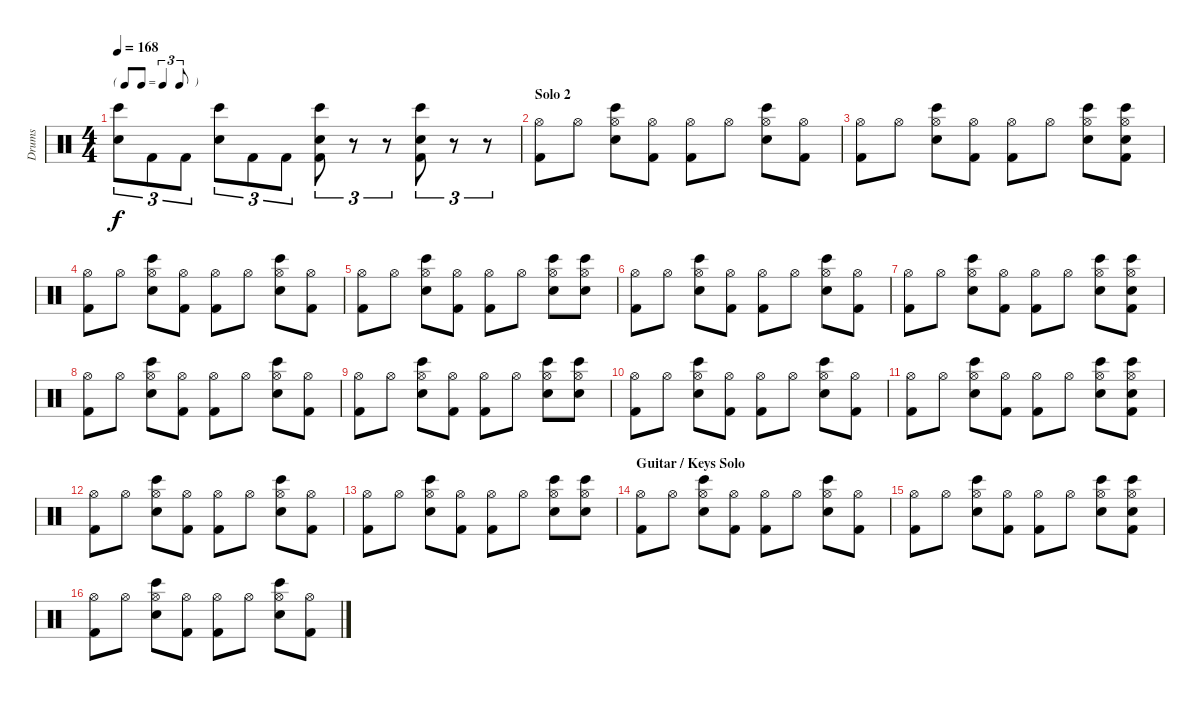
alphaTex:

\track ("Drums" "Drums") {instrument percussion}
\staff {score}
\articulation defaults
\ts (4 4)
\tf triplet8th
\tempo 168
\clef neutral
\ks c
("Bongo High (hit)" "Snare (hit) 2").8{tu (3 2) dy f} "Kick (hit) 2".8{tu (3 2)} "Kick (hit) 2".8{tu (3 2)} ("Bongo High (hit)" "Snare (hit) 2").8{tu (3 2)} "Kick (hit) 2".8{tu (3 2)} "Kick (hit) 2".8{tu (3 2)} ("Bongo High (hit)" "Snare (hit) 2" "Kick (hit) 2").8{tu (3 2)} r.8{tu (3 2)} r.8{tu (3 2)} ("Bongo High (hit)" "Snare (hit) 2" "Kick (hit) 2").8{tu (3 2)} r.8{tu (3 2)} r.8{tu (3 2)} |
\section ("" "Solo 2")
("Hi-Hat (open)" "Kick (hit) 2").8 "Hi-Hat (open)".8 ("Hi-Hat (open)" "Bongo High (hit)" "Snare (hit) 2").8 ("Hi-Hat (open)" "Kick (hit) 2").8 ("Hi-Hat (open)" "Kick (hit) 2").8 "Hi-Hat (open)".8 ("Hi-Hat (open)" "Bongo High (hit)" "Snare (hit) 2").8 ("Hi-Hat (open)" "Kick (hit) 2").8 |
("Hi-Hat (open)" "Kick (hit) 2").8 "Hi-Hat (open)".8 ("Hi-Hat (open)" "Bongo High (hit)" "Snare (hit) 2").8 ("Hi-Hat (open)" "Kick (hit) 2").8 ("Hi-Hat (open)" "Kick (hit) 2").8 "Hi-Hat (open)".8 ("Hi-Hat (open)" "Bongo High (hit)" "Snare (hit) 2").8 ("Hi-Hat (open)" "Bongo High (hit)" "Snare (hit) 2" "Kick (hit) 2").8 |
("Hi-Hat (open)" "Kick (hit) 2").8 "Hi-Hat (open)".8 ("Hi-Hat (open)" "Bongo High (hit)" "Snare (hit) 2").8 ("Hi-Hat (open)" "Kick (hit) 2").8 ("Hi-Hat (open)" "Kick (hit) 2").8 "Hi-Hat (open)".8 ("Hi-Hat (open)" "Bongo High (hit)" "Snare (hit) 2").8 ("Hi-Hat (open)" "Kick (hit) 2").8 |
("Hi-Hat (open)" "Kick (hit) 2").8 "Hi-Hat (open)".8 ("Hi-Hat (open)" "Bongo High (hit)" "Snare (hit) 2").8 ("Hi-Hat (open)" "Kick (hit) 2").8 ("Hi-Hat (open)" "Kick (hit) 2").8 "Hi-Hat (open)".8 ("Hi-Hat (open)" "Bongo High (hit)" "Snare (hit) 2").8 ("Hi-Hat (open)" "Bongo High (hit)" "Snare (hit) 2").8 |
("Hi-Hat (open)" "Kick (hit) 2").8 "Hi-Hat (open)".8 ("Hi-Hat (open)" "Bongo High (hit)" "Snare (hit) 2").8 ("Hi-Hat (open)" "Kick (hit) 2").8 ("Hi-Hat (open)" "Kick (hit) 2").8 "Hi-Hat (open)".8 ("Hi-Hat (open)" "Bongo High (hit)" "Snare (hit) 2").8 ("Hi-Hat (open)" "Kick (hit) 2").8 |
("Hi-Hat (open)" "Kick (hit) 2").8 "Hi-Hat (open)".8 ("Hi-Hat (open)" "Bongo High (hit)" "Snare (hit) 2").8 ("Hi-Hat (open)" "Kick (hit) 2").8 ("Hi-Hat (open)" "Kick (hit) 2").8 "Hi-Hat (open)".8 ("Hi-Hat (open)" "Bongo High (hit)" "Snare (hit) 2").8 ("Hi-Hat (open)" "Bongo High (hit)" "Snare (hit) 2" "Kick (hit) 2").8 |
("Hi-Hat (open)" "Kick (hit) 2").8 "Hi-Hat (open)".8 ("Hi-Hat (open)" "Bongo High (hit)" "Snare (hit) 2").8 ("Hi-Hat (open)" "Kick (hit) 2").8 ("Hi-Hat (open)" "Kick (hit) 2").8 "Hi-Hat (open)".8 ("Hi-Hat (open)" "Bongo High (hit)" "Snare (hit) 2").8 ("Hi-Hat (open)" "Kick (hit) 2").8 |
("Hi-Hat (open)" "Kick (hit) 2").8 "Hi-Hat (open)".8 ("Hi-Hat (open)" "Bongo High (hit)" "Snare (hit) 2").8 ("Hi-Hat (open)" "Kick (hit) 2").8 ("Hi-Hat (open)" "Kick (hit) 2").8 "Hi-Hat (open)".8 ("Hi-Hat (open)" "Bongo High (hit)" "Snare (hit) 2").8 ("Hi-Hat (open)" "Bongo High (hit)" "Snare (hit) 2").8 |
("Hi-Hat (open)" "Kick (hit) 2").8 "Hi-Hat (open)".8 ("Hi-Hat (open)" "Bongo High (hit)" "Snare (hit) 2").8 ("Hi-Hat (open)" "Kick (hit) 2").8 ("Hi-Hat (open)" "Kick (hit) 2").8 "Hi-Hat (open)".8 ("Hi-Hat (open)" "Bongo High (hit)" "Snare (hit) 2").8 ("Hi-Hat (open)" "Kick (hit) 2").8 |
("Hi-Hat (open)" "Kick (hit) 2").8 "Hi-Hat (open)".8 ("Hi-Hat (open)" "Bongo High (hit)" "Snare (hit) 2").8 ("Hi-Hat (open)" "Kick (hit) 2").8 ("Hi-Hat (open)" "Kick (hit) 2").8 "Hi-Hat (open)".8 ("Hi-Hat (open)" "Bongo High (hit)" "Snare (hit) 2").8 ("Hi-Hat (open)" "Bongo High (hit)" "Snare (hit) 2" "Kick (hit) 2").8 |
("Hi-Hat (open)" "Kick (hit) 2").8 "Hi-Hat (open)".8 ("Hi-Hat (open)" "Bongo High (hit)" "Snare (hit) 2").8 ("Hi-Hat (open)" "Kick (hit) 2").8 ("Hi-Hat (open)" "Kick (hit) 2").8 "Hi-Hat (open)".8 ("Hi-Hat (open)" "Bongo High (hit)" "Snare (hit) 2").8 ("Hi-Hat (open)" "Kick (hit) 2").8 |
("Hi-Hat (open)" "Kick (hit) 2").8 "Hi-Hat (open)".8 ("Hi-Hat (open)" "Bongo High (hit)" "Snare (hit) 2").8 ("Hi-Hat (open)" "Kick (hit) 2").8 ("Hi-Hat (open)" "Kick (hit) 2").8 "Hi-Hat (open)".8 ("Hi-Hat (open)" "Bongo High (hit)" "Snare (hit) 2").8 ("Hi-Hat (open)" "Bongo High (hit)" "Snare (hit) 2").8 |
\section ("" "Guitar / Keys Solo")
("Hi-Hat (open)" "Kick (hit) 2").8 "Hi-Hat (open)".8 ("Hi-Hat (open)" "Bongo High (hit)" "Snare (hit) 2").8 ("Hi-Hat (open)" "Kick (hit) 2").8 ("Hi-Hat (open)" "Kick (hit) 2").8 "Hi-Hat (open)".8 ("Hi-Hat (open)" "Bongo High (hit)" "Snare (hit) 2").8 ("Hi-Hat (open)" "Kick (hit) 2").8 |
("Hi-Hat (open)" "Kick (hit) 2").8 "Hi-Hat (open)".8 ("Hi-Hat (open)" "Bongo High (hit)" "Snare (hit) 2").8 ("Hi-Hat (open)" "Kick (hit) 2").8 ("Hi-Hat (open)" "Kick (hit) 2").8 "Hi-Hat (open)".8 ("Hi-Hat (open)" "Bongo High (hit)" "Snare (hit) 2").8 ("Hi-Hat (open)" "Bongo High (hit)" "Snare (hit) 2" "Kick (hit) 2").8 |
("Hi-Hat (open)" "Kick (hit) 2").8 "Hi-Hat (open)".8 ("Hi-Hat (open)" "Bongo High (hit)" "Snare (hit) 2").8 ("Hi-Hat (open)" "Kick (hit) 2").8 ("Hi-Hat (open)" "Kick (hit) 2").8 "Hi-Hat (open)".8 ("Hi-Hat (open)" "Bongo High (hit)" "Snare (hit) 2").8 ("Hi-Hat (open)" "Kick (hit) 2").8
